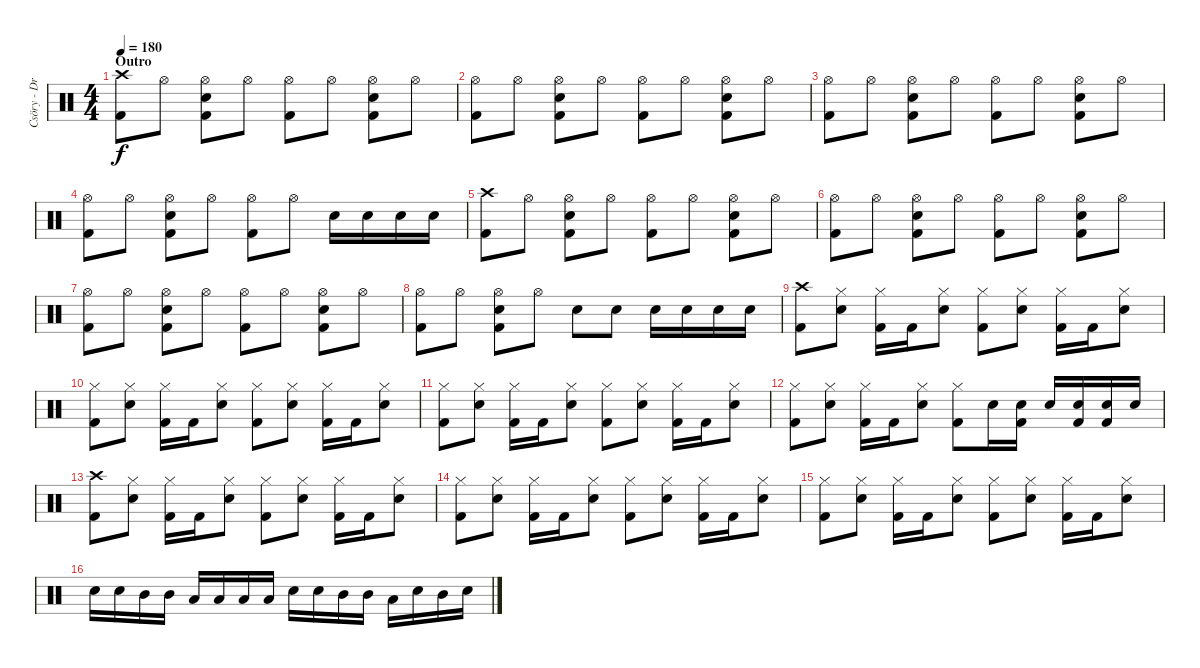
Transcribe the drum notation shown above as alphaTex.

\track ("Csöry - DrumZ" "Csöry - Dr") {instrument percussion}
\staff {score}
\articulation defaults
\ts (4 4)
\section ("" "Outro")
\tempo 180
\clef neutral
\ks c
("Crash high (hit)" "Kick (hit) 2").8{dy f} "Hi-Hat (open)".8 ("Hi-Hat (open)" "Snare (hit) 2" "Kick (hit) 2").8 "Hi-Hat (open)".8 ("Hi-Hat (open)" "Kick (hit) 2").8 "Hi-Hat (open)".8 ("Hi-Hat (open)" "Snare (hit) 2" "Kick (hit) 2").8 "Hi-Hat (open)".8 |
("Hi-Hat (open)" "Kick (hit) 2").8 "Hi-Hat (open)".8 ("Hi-Hat (open)" "Snare (hit) 2" "Kick (hit) 2").8 "Hi-Hat (open)".8 ("Hi-Hat (open)" "Kick (hit) 2").8 "Hi-Hat (open)".8 ("Hi-Hat (open)" "Snare (hit) 2" "Kick (hit) 2").8 "Hi-Hat (open)".8 |
("Hi-Hat (open)" "Kick (hit) 2").8 "Hi-Hat (open)".8 ("Hi-Hat (open)" "Snare (hit) 2" "Kick (hit) 2").8 "Hi-Hat (open)".8 ("Hi-Hat (open)" "Kick (hit) 2").8 "Hi-Hat (open)".8 ("Hi-Hat (open)" "Snare (hit) 2" "Kick (hit) 2").8 "Hi-Hat (open)".8 |
("Hi-Hat (open)" "Kick (hit) 2").8 "Hi-Hat (open)".8 ("Hi-Hat (open)" "Snare (hit) 2" "Kick (hit) 2").8 "Hi-Hat (open)".8 ("Hi-Hat (open)" "Kick (hit) 2").8 "Hi-Hat (open)".8 "Snare (hit) 2".16 "Snare (hit) 2".16 "Snare (hit) 2".16 "Snare (hit) 2".16 |
("Crash high (hit)" "Kick (hit) 2").8 "Hi-Hat (open)".8 ("Hi-Hat (open)" "Snare (hit) 2" "Kick (hit) 2").8 "Hi-Hat (open)".8 ("Hi-Hat (open)" "Kick (hit) 2").8 "Hi-Hat (open)".8 ("Hi-Hat (open)" "Snare (hit) 2" "Kick (hit) 2").8 "Hi-Hat (open)".8 |
("Hi-Hat (open)" "Kick (hit) 2").8 "Hi-Hat (open)".8 ("Hi-Hat (open)" "Snare (hit) 2" "Kick (hit) 2").8 "Hi-Hat (open)".8 ("Hi-Hat (open)" "Kick (hit) 2").8 "Hi-Hat (open)".8 ("Hi-Hat (open)" "Snare (hit) 2" "Kick (hit) 2").8 "Hi-Hat (open)".8 |
("Hi-Hat (open)" "Kick (hit) 2").8 "Hi-Hat (open)".8 ("Hi-Hat (open)" "Snare (hit) 2" "Kick (hit) 2").8 "Hi-Hat (open)".8 ("Hi-Hat (open)" "Kick (hit) 2").8 "Hi-Hat (open)".8 ("Hi-Hat (open)" "Snare (hit) 2" "Kick (hit) 2").8 "Hi-Hat (open)".8 |
("Hi-Hat (open)" "Kick (hit) 2").8 "Hi-Hat (open)".8 ("Hi-Hat (open)" "Snare (hit) 2" "Kick (hit) 2").8 "Hi-Hat (open)".8 "Snare (hit) 2".8 "Snare (hit) 2".8 "Snare (hit) 2".16 "Snare (hit) 2".16 "Snare (hit) 2".16 "Snare (hit) 2".16 |
("Crash high (hit)" "Kick (hit) 2").8 ("Hi-Hat (closed)" "Snare (hit) 2").8 ("Hi-Hat (closed)" "Kick (hit) 2").16 "Kick (hit) 2".16 ("Hi-Hat (closed)" "Snare (hit) 2").8 ("Hi-Hat (closed)" "Kick (hit) 2").8 ("Hi-Hat (closed)" "Snare (hit) 2").8 ("Hi-Hat (closed)" "Kick (hit) 2").16 "Kick (hit) 2".16 ("Hi-Hat (closed)" "Snare (hit) 2").8 |
("Hi-Hat (closed)" "Kick (hit) 2").8 ("Hi-Hat (closed)" "Snare (hit) 2").8 ("Hi-Hat (closed)" "Kick (hit) 2").16 "Kick (hit) 2".16 ("Hi-Hat (closed)" "Snare (hit) 2").8 ("Hi-Hat (closed)" "Kick (hit) 2").8 ("Hi-Hat (closed)" "Snare (hit) 2").8 ("Hi-Hat (closed)" "Kick (hit) 2").16 "Kick (hit) 2".16 ("Hi-Hat (closed)" "Snare (hit) 2").8 |
("Hi-Hat (closed)" "Kick (hit) 2").8 ("Hi-Hat (closed)" "Snare (hit) 2").8 ("Hi-Hat (closed)" "Kick (hit) 2").16 "Kick (hit) 2".16 ("Hi-Hat (closed)" "Snare (hit) 2").8 ("Hi-Hat (closed)" "Kick (hit) 2").8 ("Hi-Hat (closed)" "Snare (hit) 2").8 ("Hi-Hat (closed)" "Kick (hit) 2").16 "Kick (hit) 2".16 ("Hi-Hat (closed)" "Snare (hit) 2").8 |
("Hi-Hat (closed)" "Kick (hit) 2").8 ("Hi-Hat (closed)" "Snare (hit) 2").8 ("Hi-Hat (closed)" "Kick (hit) 2").16 "Kick (hit) 2".16 ("Hi-Hat (closed)" "Snare (hit) 2").8 ("Hi-Hat (closed)" "Kick (hit) 2").8 "Snare (hit) 2".16 ("Snare (hit) 2" "Kick (hit) 2").16 "Snare (hit) 2".16 ("Snare (hit) 2" "Kick (hit) 2").16 ("Snare (hit) 2" "Kick (hit) 2").16 "Snare (hit) 2".16 |
("Crash high (hit)" "Kick (hit) 2").8 ("Hi-Hat (closed)" "Snare (hit) 2").8 ("Hi-Hat (closed)" "Kick (hit) 2").16 "Kick (hit) 2".16 ("Hi-Hat (closed)" "Snare (hit) 2").8 ("Hi-Hat (closed)" "Kick (hit) 2").8 ("Hi-Hat (closed)" "Snare (hit) 2").8 ("Hi-Hat (closed)" "Kick (hit) 2").16 "Kick (hit) 2".16 ("Hi-Hat (closed)" "Snare (hit) 2").8 |
("Hi-Hat (closed)" "Kick (hit) 2").8 ("Hi-Hat (closed)" "Snare (hit) 2").8 ("Hi-Hat (closed)" "Kick (hit) 2").16 "Kick (hit) 2".16 ("Hi-Hat (closed)" "Snare (hit) 2").8 ("Hi-Hat (closed)" "Kick (hit) 2").8 ("Hi-Hat (closed)" "Snare (hit) 2").8 ("Hi-Hat (closed)" "Kick (hit) 2").16 "Kick (hit) 2".16 ("Hi-Hat (closed)" "Snare (hit) 2").8 |
("Hi-Hat (closed)" "Kick (hit) 2").8 ("Hi-Hat (closed)" "Snare (hit) 2").8 ("Hi-Hat (closed)" "Kick (hit) 2").16 "Kick (hit) 2".16 ("Hi-Hat (closed)" "Snare (hit) 2").8 ("Hi-Hat (closed)" "Kick (hit) 2").8 ("Hi-Hat (closed)" "Snare (hit) 2").8 ("Hi-Hat (closed)" "Kick (hit) 2").16 "Kick (hit) 2".16 ("Hi-Hat (closed)" "Snare (hit) 2").8 |
"Snare (hit) 2".16 "Snare (hit) 2".16 "Mid Tom (hit)".16 "Mid Tom (hit)".16 "Low Tom (hit)".16 "Low Tom (hit)".16 "Low Floor Tom (hit)".16 "Low Floor Tom (hit)".16 "Snare (hit) 2".16 "Snare (hit) 2".16 "Mid Tom (hit)".16 "Mid Tom (hit)".16 "Low Tom (hit)".16 "Snare (hit) 2".16 "Mid Tom (hit)".16 "Snare (hit) 2".16
